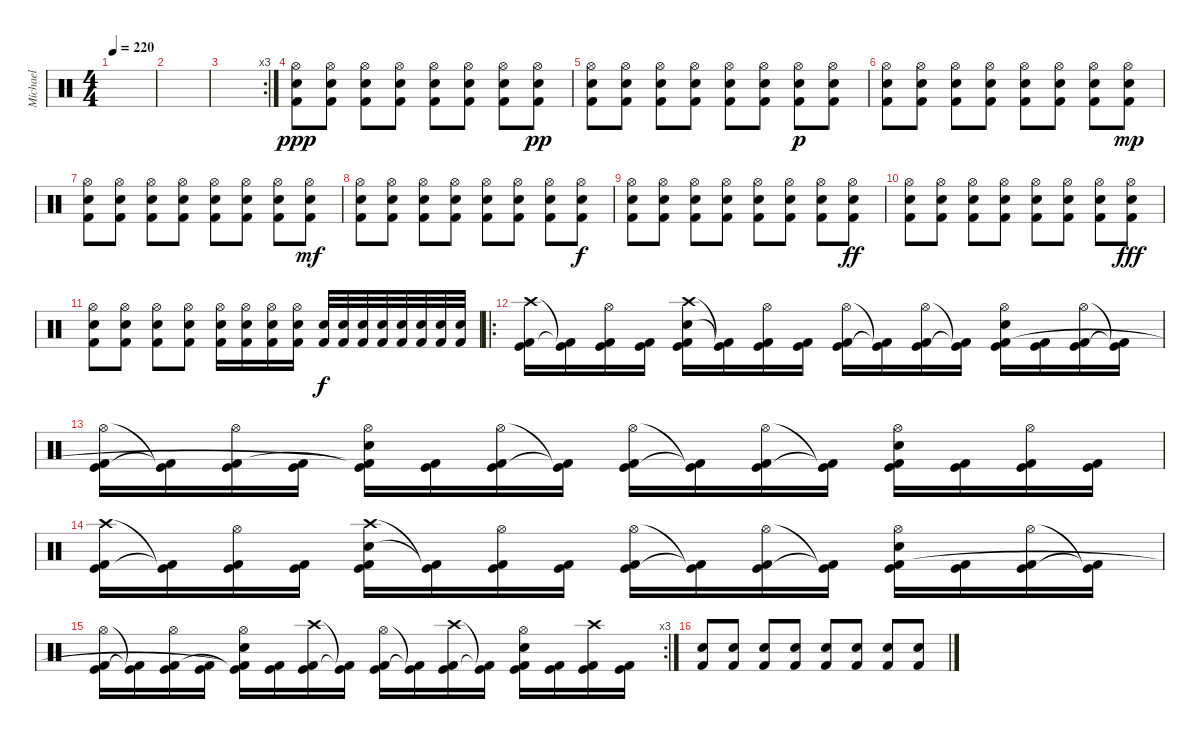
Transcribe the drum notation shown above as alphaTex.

\track ("Michael" "Michael") {instrument percussion}
\staff {score}
\articulation defaults
\ts (4 4)
\tempo 220
\clef neutral
\ks c
|
|
\rc 3
|
("Hi-Hat (open)" "Kick (hit) 2" "Electric Snare (hit)").8{dy ppp} ("Hi-Hat (open)" "Kick (hit) 2" "Electric Snare (hit)").8 ("Hi-Hat (open)" "Kick (hit) 2" "Electric Snare (hit)").8 ("Hi-Hat (open)" "Kick (hit) 2" "Electric Snare (hit)").8 ("Hi-Hat (open)" "Kick (hit) 2" "Electric Snare (hit)").8 ("Hi-Hat (open)" "Kick (hit) 2" "Electric Snare (hit)").8 ("Hi-Hat (open)" "Kick (hit) 2" "Electric Snare (hit)").8 ("Hi-Hat (open)" "Kick (hit) 2" "Electric Snare (hit)").8{dy pp} |
("Hi-Hat (open)" "Kick (hit) 2" "Electric Snare (hit)").8 ("Hi-Hat (open)" "Kick (hit) 2" "Electric Snare (hit)").8 ("Hi-Hat (open)" "Kick (hit) 2" "Electric Snare (hit)").8 ("Hi-Hat (open)" "Kick (hit) 2" "Electric Snare (hit)").8 ("Hi-Hat (open)" "Kick (hit) 2" "Electric Snare (hit)").8 ("Hi-Hat (open)" "Kick (hit) 2" "Electric Snare (hit)").8 ("Hi-Hat (open)" "Kick (hit) 2" "Electric Snare (hit)").8{dy p} ("Hi-Hat (open)" "Kick (hit) 2" "Electric Snare (hit)").8 |
("Hi-Hat (open)" "Kick (hit) 2" "Electric Snare (hit)").8 ("Hi-Hat (open)" "Kick (hit) 2" "Electric Snare (hit)").8 ("Hi-Hat (open)" "Kick (hit) 2" "Electric Snare (hit)").8 ("Hi-Hat (open)" "Kick (hit) 2" "Electric Snare (hit)").8 ("Hi-Hat (open)" "Kick (hit) 2" "Electric Snare (hit)").8 ("Hi-Hat (open)" "Kick (hit) 2" "Electric Snare (hit)").8 ("Hi-Hat (open)" "Kick (hit) 2" "Electric Snare (hit)").8 ("Hi-Hat (open)" "Kick (hit) 2" "Electric Snare (hit)").8{dy mp} |
("Hi-Hat (open)" "Kick (hit) 2" "Electric Snare (hit)").8 ("Hi-Hat (open)" "Kick (hit) 2" "Electric Snare (hit)").8 ("Hi-Hat (open)" "Kick (hit) 2" "Electric Snare (hit)").8 ("Hi-Hat (open)" "Kick (hit) 2" "Electric Snare (hit)").8 ("Hi-Hat (open)" "Kick (hit) 2" "Electric Snare (hit)").8 ("Hi-Hat (open)" "Kick (hit) 2" "Electric Snare (hit)").8 ("Hi-Hat (open)" "Kick (hit) 2" "Electric Snare (hit)").8 ("Hi-Hat (open)" "Kick (hit) 2" "Electric Snare (hit)").8{dy mf} |
("Hi-Hat (open)" "Kick (hit) 2" "Electric Snare (hit)").8 ("Hi-Hat (open)" "Kick (hit) 2" "Electric Snare (hit)").8 ("Hi-Hat (open)" "Kick (hit) 2" "Electric Snare (hit)").8 ("Hi-Hat (open)" "Kick (hit) 2" "Electric Snare (hit)").8 ("Hi-Hat (open)" "Kick (hit) 2" "Electric Snare (hit)").8 ("Hi-Hat (open)" "Kick (hit) 2" "Electric Snare (hit)").8 ("Hi-Hat (open)" "Kick (hit) 2" "Electric Snare (hit)").8 ("Hi-Hat (open)" "Kick (hit) 2" "Electric Snare (hit)").8{dy f} |
("Hi-Hat (open)" "Kick (hit) 2" "Electric Snare (hit)").8 ("Hi-Hat (open)" "Kick (hit) 2" "Electric Snare (hit)").8 ("Hi-Hat (open)" "Kick (hit) 2" "Electric Snare (hit)").8 ("Hi-Hat (open)" "Kick (hit) 2" "Electric Snare (hit)").8 ("Hi-Hat (open)" "Kick (hit) 2" "Electric Snare (hit)").8 ("Hi-Hat (open)" "Kick (hit) 2" "Electric Snare (hit)").8 ("Hi-Hat (open)" "Kick (hit) 2" "Electric Snare (hit)").8 ("Hi-Hat (open)" "Kick (hit) 2" "Electric Snare (hit)").8{dy ff} |
("Hi-Hat (open)" "Kick (hit) 2" "Electric Snare (hit)").8 ("Hi-Hat (open)" "Kick (hit) 2" "Electric Snare (hit)").8 ("Hi-Hat (open)" "Kick (hit) 2" "Electric Snare (hit)").8 ("Hi-Hat (open)" "Kick (hit) 2" "Electric Snare (hit)").8 ("Hi-Hat (open)" "Kick (hit) 2" "Electric Snare (hit)").8 ("Hi-Hat (open)" "Kick (hit) 2" "Electric Snare (hit)").8 ("Hi-Hat (open)" "Kick (hit) 2" "Electric Snare (hit)").8 ("Hi-Hat (open)" "Kick (hit) 2" "Electric Snare (hit)").8{dy fff} |
("Hi-Hat (open)" "Kick (hit) 2" "Electric Snare (hit)").8 ("Hi-Hat (open)" "Kick (hit) 2" "Electric Snare (hit)").8 ("Hi-Hat (open)" "Kick (hit) 2" "Electric Snare (hit)").8 ("Hi-Hat (open)" "Kick (hit) 2" "Electric Snare (hit)").8 ("Hi-Hat (open)" "Kick (hit) 2" "Electric Snare (hit)").16 ("Hi-Hat (open)" "Kick (hit) 2" "Electric Snare (hit)").16 ("Hi-Hat (open)" "Kick (hit) 2" "Electric Snare (hit)").16 ("Hi-Hat (open)" "Kick (hit) 2" "Electric Snare (hit)").16 ("Kick (hit) 2" "Electric Snare (hit)").32{dy f} ("Kick (hit) 2" "Electric Snare (hit)").32 ("Kick (hit) 2" "Electric Snare (hit)").32 ("Kick (hit) 2" "Electric Snare (hit)").32 ("Kick (hit) 2" "Electric Snare (hit)").32 ("Kick (hit) 2" "Electric Snare (hit)").32 ("Kick (hit) 2" "Electric Snare (hit)").32 ("Kick (hit) 2" "Electric Snare (hit)").32 |
\ro
("Crash high (hit)" "Kick (hit)" "Kick (hit) 2").16 ("Kick (hit)"{t} "Kick (hit) 2"{t}).16 ("Hi-Hat (open)" "Kick (hit)" "Kick (hit) 2").16 ("Kick (hit)" "Kick (hit) 2").16 ("Crash high (hit)" "Electric Snare (hit)" "Kick (hit)" "Kick (hit) 2").16 ("Kick (hit)"{t} "Kick (hit) 2"{t}).16 ("Hi-Hat (open)" "Kick (hit)" "Kick (hit) 2").16 ("Kick (hit)" "Kick (hit) 2").16 ("Hi-Hat (open)" "Kick (hit)" "Kick (hit) 2").16 ("Kick (hit)"{t} "Kick (hit) 2"{t}).16 ("Hi-Hat (open)" "Kick (hit)" "Kick (hit) 2").16 ("Kick (hit)"{t} "Kick (hit) 2"{t}).16 ("Hi-Hat (open)" "Electric Snare (hit)" "Kick (hit)" "Kick (hit) 2").16 ("Kick (hit)" "Kick (hit) 2").16 ("Hi-Hat (open)" "Kick (hit)" "Kick (hit) 2").16 ("Kick (hit)"{t} "Kick (hit) 2"{t}).16 |
("Hi-Hat (open)" "Kick (hit)" "Kick (hit) 2").16 ("Kick (hit)"{t} "Kick (hit) 2"{t}).16 ("Hi-Hat (open)" "Kick (hit)" "Kick (hit) 2").16 ("Kick (hit)" "Kick (hit) 2").16 ("Hi-Hat (open)" "Electric Snare (hit)" "Kick (hit)"{t} "Kick (hit) 2"{t}).16 ("Kick (hit)" "Kick (hit) 2").16 ("Hi-Hat (open)" "Kick (hit)" "Kick (hit) 2").16 ("Kick (hit)"{t} "Kick (hit) 2"{t}).16 ("Hi-Hat (open)" "Kick (hit)" "Kick (hit) 2").16 ("Kick (hit)"{t} "Kick (hit) 2"{t}).16 ("Hi-Hat (open)" "Kick (hit)" "Kick (hit) 2").16 ("Kick (hit)"{t} "Kick (hit) 2"{t}).16 ("Hi-Hat (open)" "Electric Snare (hit)" "Kick (hit)" "Kick (hit) 2").16 ("Kick (hit)" "Kick (hit) 2").16 ("Hi-Hat (open)" "Kick (hit)" "Kick (hit) 2").16 ("Kick (hit)" "Kick (hit) 2").16 |
("Crash high (hit)" "Kick (hit)" "Kick (hit) 2").16 ("Kick (hit)"{t} "Kick (hit) 2"{t}).16 ("Hi-Hat (open)" "Kick (hit)" "Kick (hit) 2").16 ("Kick (hit)" "Kick (hit) 2").16 ("Crash high (hit)" "Electric Snare (hit)" "Kick (hit)" "Kick (hit) 2").16 ("Kick (hit)"{t} "Kick (hit) 2"{t}).16 ("Hi-Hat (open)" "Kick (hit)" "Kick (hit) 2").16 ("Kick (hit)" "Kick (hit) 2").16 ("Hi-Hat (open)" "Kick (hit)" "Kick (hit) 2").16 ("Kick (hit)"{t} "Kick (hit) 2"{t}).16 ("Hi-Hat (open)" "Kick (hit)" "Kick (hit) 2").16 ("Kick (hit)"{t} "Kick (hit) 2"{t}).16 ("Hi-Hat (open)" "Electric Snare (hit)" "Kick (hit)" "Kick (hit) 2").16 ("Kick (hit)" "Kick (hit) 2").16 ("Hi-Hat (open)" "Kick (hit)" "Kick (hit) 2").16 ("Kick (hit)"{t} "Kick (hit) 2"{t}).16 |
\rc 3
("Hi-Hat (open)" "Kick (hit)" "Kick (hit) 2").16 ("Kick (hit)"{t} "Kick (hit) 2"{t}).16 ("Hi-Hat (open)" "Kick (hit)" "Kick (hit) 2").16 ("Kick (hit)" "Kick (hit) 2").16 ("Hi-Hat (open)" "Electric Snare (hit)" "Kick (hit)"{t} "Kick (hit) 2"{t}).16 ("Kick (hit)" "Kick (hit) 2").16 ("Crash high (hit)" "Kick (hit)" "Kick (hit) 2").16 ("Kick (hit)"{t} "Kick (hit) 2"{t}).16 ("Hi-Hat (open)" "Kick (hit)" "Kick (hit) 2").16 ("Kick (hit)"{t} "Kick (hit) 2"{t}).16 ("Crash high (hit)" "Kick (hit)" "Kick (hit) 2").16 ("Kick (hit)"{t} "Kick (hit) 2"{t}).16 ("Hi-Hat (open)" "Electric Snare (hit)" "Kick (hit)" "Kick (hit) 2").16 ("Kick (hit)" "Kick (hit) 2").16 ("Crash high (hit)" "Kick (hit)" "Kick (hit) 2").16 ("Kick (hit)" "Kick (hit) 2").16 |
("Kick (hit) 2" "Electric Snare (hit)").8 ("Kick (hit) 2" "Electric Snare (hit)").8 ("Kick (hit) 2" "Electric Snare (hit)").8 ("Kick (hit) 2" "Electric Snare (hit)").8 ("Kick (hit) 2" "Electric Snare (hit)").8 ("Kick (hit) 2" "Electric Snare (hit)").8 ("Kick (hit) 2" "Electric Snare (hit)").8 ("Kick (hit) 2" "Electric Snare (hit)").8
